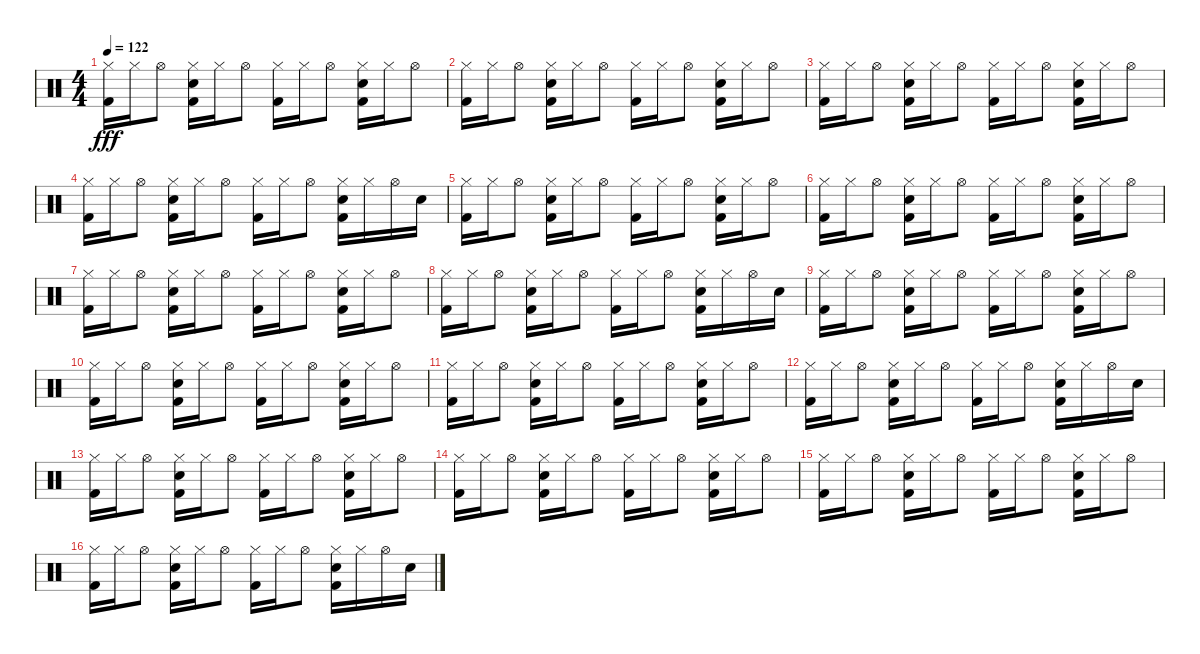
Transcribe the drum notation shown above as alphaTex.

\track "" {instrument percussion}
\staff {score}
\articulation defaults
\ts (4 4)
\tempo 122
\clef neutral
\ks c
("Kick (hit) 2" "Hi-Hat (closed)").16{dy fff} "Hi-Hat (closed)".16 "Hi-Hat (open)".8 ("Kick (hit) 2" "Snare (hit) 2" "Hi-Hat (closed)").16 "Hi-Hat (closed)".16 "Hi-Hat (open)".8 ("Kick (hit) 2" "Hi-Hat (closed)").16 "Hi-Hat (closed)".16 "Hi-Hat (open)".8 ("Kick (hit) 2" "Snare (hit) 2" "Hi-Hat (closed)").16 "Hi-Hat (closed)".16 "Hi-Hat (open)".8 |
("Kick (hit) 2" "Hi-Hat (closed)").16 "Hi-Hat (closed)".16 "Hi-Hat (open)".8 ("Kick (hit) 2" "Snare (hit) 2" "Hi-Hat (closed)").16 "Hi-Hat (closed)".16 "Hi-Hat (open)".8 ("Kick (hit) 2" "Hi-Hat (closed)").16 "Hi-Hat (closed)".16 "Hi-Hat (open)".8 ("Kick (hit) 2" "Snare (hit) 2" "Hi-Hat (closed)").16 "Hi-Hat (closed)".16 "Hi-Hat (open)".8 |
("Kick (hit) 2" "Hi-Hat (closed)").16 "Hi-Hat (closed)".16 "Hi-Hat (open)".8 ("Kick (hit) 2" "Snare (hit) 2" "Hi-Hat (closed)").16 "Hi-Hat (closed)".16 "Hi-Hat (open)".8 ("Kick (hit) 2" "Hi-Hat (closed)").16 "Hi-Hat (closed)".16 "Hi-Hat (open)".8 ("Kick (hit) 2" "Snare (hit) 2" "Hi-Hat (closed)").16 "Hi-Hat (closed)".16 "Hi-Hat (open)".8 |
("Kick (hit) 2" "Hi-Hat (closed)").16 "Hi-Hat (closed)".16 "Hi-Hat (open)".8 ("Kick (hit) 2" "Snare (hit) 2" "Hi-Hat (closed)").16 "Hi-Hat (closed)".16 "Hi-Hat (open)".8 ("Kick (hit) 2" "Hi-Hat (closed)").16 "Hi-Hat (closed)".16 "Hi-Hat (open)".8 ("Kick (hit) 2" "Snare (hit) 2" "Hi-Hat (closed)").16 "Hi-Hat (closed)".16 "Hi-Hat (open)".16 "Snare (hit) 2".16 |
("Kick (hit) 2" "Hi-Hat (closed)").16 "Hi-Hat (closed)".16 "Hi-Hat (open)".8 ("Kick (hit) 2" "Snare (hit) 2" "Hi-Hat (closed)").16 "Hi-Hat (closed)".16 "Hi-Hat (open)".8 ("Kick (hit) 2" "Hi-Hat (closed)").16 "Hi-Hat (closed)".16 "Hi-Hat (open)".8 ("Kick (hit) 2" "Snare (hit) 2" "Hi-Hat (closed)").16 "Hi-Hat (closed)".16 "Hi-Hat (open)".8 |
("Kick (hit) 2" "Hi-Hat (closed)").16 "Hi-Hat (closed)".16 "Hi-Hat (open)".8 ("Kick (hit) 2" "Snare (hit) 2" "Hi-Hat (closed)").16 "Hi-Hat (closed)".16 "Hi-Hat (open)".8 ("Kick (hit) 2" "Hi-Hat (closed)").16 "Hi-Hat (closed)".16 "Hi-Hat (open)".8 ("Kick (hit) 2" "Snare (hit) 2" "Hi-Hat (closed)").16 "Hi-Hat (closed)".16 "Hi-Hat (open)".8 |
("Kick (hit) 2" "Hi-Hat (closed)").16 "Hi-Hat (closed)".16 "Hi-Hat (open)".8 ("Kick (hit) 2" "Snare (hit) 2" "Hi-Hat (closed)").16 "Hi-Hat (closed)".16 "Hi-Hat (open)".8 ("Kick (hit) 2" "Hi-Hat (closed)").16 "Hi-Hat (closed)".16 "Hi-Hat (open)".8 ("Kick (hit) 2" "Snare (hit) 2" "Hi-Hat (closed)").16 "Hi-Hat (closed)".16 "Hi-Hat (open)".8 |
("Kick (hit) 2" "Hi-Hat (closed)").16 "Hi-Hat (closed)".16 "Hi-Hat (open)".8 ("Kick (hit) 2" "Snare (hit) 2" "Hi-Hat (closed)").16 "Hi-Hat (closed)".16 "Hi-Hat (open)".8 ("Kick (hit) 2" "Hi-Hat (closed)").16 "Hi-Hat (closed)".16 "Hi-Hat (open)".8 ("Kick (hit) 2" "Snare (hit) 2" "Hi-Hat (closed)").16 "Hi-Hat (closed)".16 "Hi-Hat (open)".16 "Snare (hit) 2".16 |
("Kick (hit) 2" "Hi-Hat (closed)").16 "Hi-Hat (closed)".16 "Hi-Hat (open)".8 ("Kick (hit) 2" "Snare (hit) 2" "Hi-Hat (closed)").16 "Hi-Hat (closed)".16 "Hi-Hat (open)".8 ("Kick (hit) 2" "Hi-Hat (closed)").16 "Hi-Hat (closed)".16 "Hi-Hat (open)".8 ("Kick (hit) 2" "Snare (hit) 2" "Hi-Hat (closed)").16 "Hi-Hat (closed)".16 "Hi-Hat (open)".8 |
("Kick (hit) 2" "Hi-Hat (closed)").16 "Hi-Hat (closed)".16 "Hi-Hat (open)".8 ("Kick (hit) 2" "Snare (hit) 2" "Hi-Hat (closed)").16 "Hi-Hat (closed)".16 "Hi-Hat (open)".8 ("Kick (hit) 2" "Hi-Hat (closed)").16 "Hi-Hat (closed)".16 "Hi-Hat (open)".8 ("Kick (hit) 2" "Snare (hit) 2" "Hi-Hat (closed)").16 "Hi-Hat (closed)".16 "Hi-Hat (open)".8 |
("Kick (hit) 2" "Hi-Hat (closed)").16 "Hi-Hat (closed)".16 "Hi-Hat (open)".8 ("Kick (hit) 2" "Snare (hit) 2" "Hi-Hat (closed)").16 "Hi-Hat (closed)".16 "Hi-Hat (open)".8 ("Kick (hit) 2" "Hi-Hat (closed)").16 "Hi-Hat (closed)".16 "Hi-Hat (open)".8 ("Kick (hit) 2" "Snare (hit) 2" "Hi-Hat (closed)").16 "Hi-Hat (closed)".16 "Hi-Hat (open)".8 |
("Kick (hit) 2" "Hi-Hat (closed)").16 "Hi-Hat (closed)".16 "Hi-Hat (open)".8 ("Kick (hit) 2" "Snare (hit) 2" "Hi-Hat (closed)").16 "Hi-Hat (closed)".16 "Hi-Hat (open)".8 ("Kick (hit) 2" "Hi-Hat (closed)").16 "Hi-Hat (closed)".16 "Hi-Hat (open)".8 ("Kick (hit) 2" "Snare (hit) 2" "Hi-Hat (closed)").16 "Hi-Hat (closed)".16 "Hi-Hat (open)".16 "Snare (hit) 2".16 |
("Kick (hit) 2" "Hi-Hat (closed)").16 "Hi-Hat (closed)".16 "Hi-Hat (open)".8 ("Kick (hit) 2" "Snare (hit) 2" "Hi-Hat (closed)").16 "Hi-Hat (closed)".16 "Hi-Hat (open)".8 ("Kick (hit) 2" "Hi-Hat (closed)").16 "Hi-Hat (closed)".16 "Hi-Hat (open)".8 ("Kick (hit) 2" "Snare (hit) 2" "Hi-Hat (closed)").16 "Hi-Hat (closed)".16 "Hi-Hat (open)".8 |
("Kick (hit) 2" "Hi-Hat (closed)").16 "Hi-Hat (closed)".16 "Hi-Hat (open)".8 ("Kick (hit) 2" "Snare (hit) 2" "Hi-Hat (closed)").16 "Hi-Hat (closed)".16 "Hi-Hat (open)".8 ("Kick (hit) 2" "Hi-Hat (closed)").16 "Hi-Hat (closed)".16 "Hi-Hat (open)".8 ("Kick (hit) 2" "Snare (hit) 2" "Hi-Hat (closed)").16 "Hi-Hat (closed)".16 "Hi-Hat (open)".8 |
("Kick (hit) 2" "Hi-Hat (closed)").16 "Hi-Hat (closed)".16 "Hi-Hat (open)".8 ("Kick (hit) 2" "Snare (hit) 2" "Hi-Hat (closed)").16 "Hi-Hat (closed)".16 "Hi-Hat (open)".8 ("Kick (hit) 2" "Hi-Hat (closed)").16 "Hi-Hat (closed)".16 "Hi-Hat (open)".8 ("Kick (hit) 2" "Snare (hit) 2" "Hi-Hat (closed)").16 "Hi-Hat (closed)".16 "Hi-Hat (open)".8 |
("Kick (hit) 2" "Hi-Hat (closed)").16 "Hi-Hat (closed)".16 "Hi-Hat (open)".8 ("Kick (hit) 2" "Snare (hit) 2" "Hi-Hat (closed)").16 "Hi-Hat (closed)".16 "Hi-Hat (open)".8 ("Kick (hit) 2" "Hi-Hat (closed)").16 "Hi-Hat (closed)".16 "Hi-Hat (open)".8 ("Kick (hit) 2" "Snare (hit) 2" "Hi-Hat (closed)").16 "Hi-Hat (closed)".16 "Hi-Hat (open)".16 "Snare (hit) 2".16
